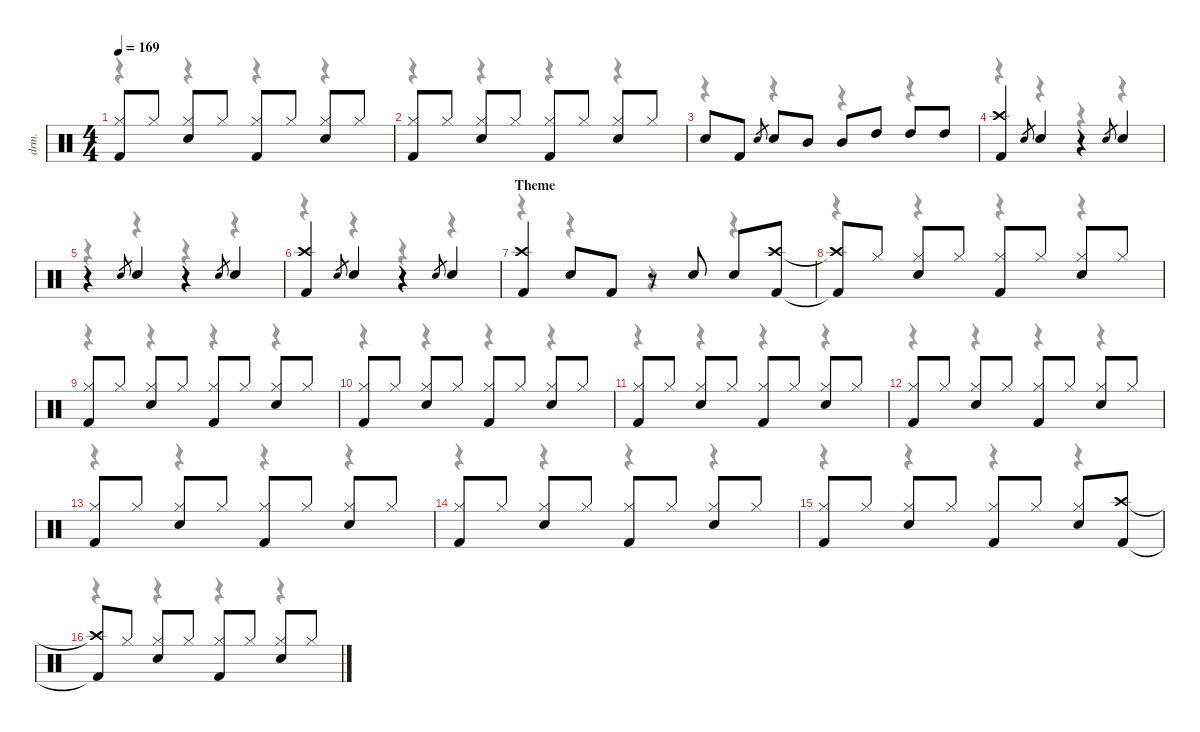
\defaultSystemsLayout 4
\hideDynamics
\bracketExtendMode nobrackets
\otherSystemsTrackNameOrientation horizontal
\track ("Drums" "drm.") {instrument percussion}
\staff {score}
\articulation defaults
\voice
\ts (4 4)
\tempo 169
\clef neutral
\ks c
("Hi-Hat (closed)" "Kick (hit) 2").8{dy f} "Hi-Hat (closed)".8 ("Hi-Hat (closed)" "Snare (hit) 2").8 "Hi-Hat (closed)".8 ("Hi-Hat (closed)" "Kick (hit) 2").8 "Hi-Hat (closed)".8 ("Hi-Hat (closed)" "Snare (hit) 2").8 "Hi-Hat (closed)".8 |
("Hi-Hat (closed)" "Kick (hit) 2").8 "Hi-Hat (closed)".8 ("Hi-Hat (closed)" "Snare (hit) 2").8 "Hi-Hat (closed)".8 ("Hi-Hat (closed)" "Kick (hit) 2").8 "Hi-Hat (closed)".8 ("Hi-Hat (closed)" "Snare (hit) 2").8 "Hi-Hat (closed)".8 |
"Snare (hit) 2".8{dy ff} "Kick (hit) 2".8{dy f} "Snare (hit) 2".8{gr dy mf} "Snare (hit) 2".8{dy ff} "Mid Tom (hit)".8{dy f} "Mid Tom (hit)".8 "High Tom (hit)".8 "High Tom (hit)".8 "High Tom (hit)".8 |
("Crash high (hit)" "Kick (hit) 2").4 "Snare (hit) 2".8{gr dy mf} "Snare (hit) 2".4{dy f} r.4 "Snare (hit) 2".8{gr dy mf} "Snare (hit) 2".4{dy f} |
r.4 "Snare (hit) 2".8{gr dy mf} "Snare (hit) 2".4{dy f} r.4 "Snare (hit) 2".8{gr dy mf} "Snare (hit) 2".4{dy f} |
("Crash high (hit)" "Kick (hit) 2").4 "Snare (hit) 2".8{gr dy mf} "Snare (hit) 2".4{dy f} r.4 "Snare (hit) 2".8{gr dy mf} "Snare (hit) 2".4{dy f} |
\section ("" "Theme")
("Crash high (hit)" "Kick (hit) 2").4 "Snare (hit) 2".8 "Kick (hit) 2".8 r.8 "Snare (hit) 2".8 "Snare (hit) 2".8 ("Crash high (hit)" "Kick (hit) 2").8 |
("Crash high (hit)"{t} "Kick (hit) 2"{t}).8 "Hi-Hat (closed)".8 ("Hi-Hat (closed)" "Snare (hit) 2").8 "Hi-Hat (closed)".8 ("Hi-Hat (closed)" "Kick (hit) 2").8 "Hi-Hat (closed)".8 ("Hi-Hat (closed)" "Snare (hit) 2").8 "Hi-Hat (closed)".8 |
("Hi-Hat (closed)" "Kick (hit) 2").8 "Hi-Hat (closed)".8 ("Hi-Hat (closed)" "Snare (hit) 2").8 "Hi-Hat (closed)".8 ("Hi-Hat (closed)" "Kick (hit) 2").8 "Hi-Hat (closed)".8 ("Hi-Hat (closed)" "Snare (hit) 2").8 "Hi-Hat (closed)".8 |
("Hi-Hat (closed)" "Kick (hit) 2").8 "Hi-Hat (closed)".8 ("Hi-Hat (closed)" "Snare (hit) 2").8 "Hi-Hat (closed)".8 ("Hi-Hat (closed)" "Kick (hit) 2").8 "Hi-Hat (closed)".8 ("Hi-Hat (closed)" "Snare (hit) 2").8 "Hi-Hat (closed)".8 |
("Hi-Hat (closed)" "Kick (hit) 2").8 "Hi-Hat (closed)".8 ("Hi-Hat (closed)" "Snare (hit) 2").8 "Hi-Hat (closed)".8 ("Hi-Hat (closed)" "Kick (hit) 2").8 "Hi-Hat (closed)".8 ("Hi-Hat (closed)" "Snare (hit) 2").8 "Hi-Hat (closed)".8 |
("Hi-Hat (closed)" "Kick (hit) 2").8 "Hi-Hat (closed)".8 ("Hi-Hat (closed)" "Snare (hit) 2").8 "Hi-Hat (closed)".8 ("Hi-Hat (closed)" "Kick (hit) 2").8 "Hi-Hat (closed)".8 ("Hi-Hat (closed)" "Snare (hit) 2").8 "Hi-Hat (closed)".8 |
("Hi-Hat (closed)" "Kick (hit) 2").8 "Hi-Hat (closed)".8 ("Hi-Hat (closed)" "Snare (hit) 2").8 "Hi-Hat (closed)".8 ("Hi-Hat (closed)" "Kick (hit) 2").8 "Hi-Hat (closed)".8 ("Hi-Hat (closed)" "Snare (hit) 2").8 "Hi-Hat (closed)".8 |
("Hi-Hat (closed)" "Kick (hit) 2").8 "Hi-Hat (closed)".8 ("Hi-Hat (closed)" "Snare (hit) 2").8 "Hi-Hat (closed)".8 ("Hi-Hat (closed)" "Kick (hit) 2").8 "Hi-Hat (closed)".8 ("Hi-Hat (closed)" "Snare (hit) 2").8 "Hi-Hat (closed)".8 |
("Hi-Hat (closed)" "Kick (hit) 2").8 "Hi-Hat (closed)".8 ("Hi-Hat (closed)" "Snare (hit) 2").8 "Hi-Hat (closed)".8 ("Hi-Hat (closed)" "Kick (hit) 2").8 "Hi-Hat (closed)".8 ("Hi-Hat (closed)" "Snare (hit) 2").8 ("Crash high (hit)" "Kick (hit) 2").8 |
("Crash high (hit)"{t} "Kick (hit) 2"{t}).8 "Hi-Hat (closed)".8 ("Hi-Hat (closed)" "Snare (hit) 2").8 "Hi-Hat (closed)".8 ("Hi-Hat (closed)" "Kick (hit) 2").8 "Hi-Hat (closed)".8 ("Hi-Hat (closed)" "Snare (hit) 2").8 "Hi-Hat (closed)".8
\voice
\clef neutral
\ottava regular
\simile none
\ks c
r.4{dy mf} r.4 r.4 r.4 |
r.4 r.4 r.4 r.4 |
r.4 r.4 r.4 r.4 |
r.4 r.4 r.4 r.4 |
r.4 r.4 r.4 r.4 |
r.4 r.4 r.4 r.4 |
r.4 r.4 r.4 r.4 |
r.4 r.4 r.4 r.4 |
r.4 r.4 r.4 r.4 |
r.4 r.4 r.4 r.4 |
r.4 r.4 r.4 r.4 |
r.4 r.4 r.4 r.4 |
r.4 r.4 r.4 r.4 |
r.4 r.4 r.4 r.4 |
r.4 r.4 r.4 r.4 |
r.4 r.4 r.4 r.4
